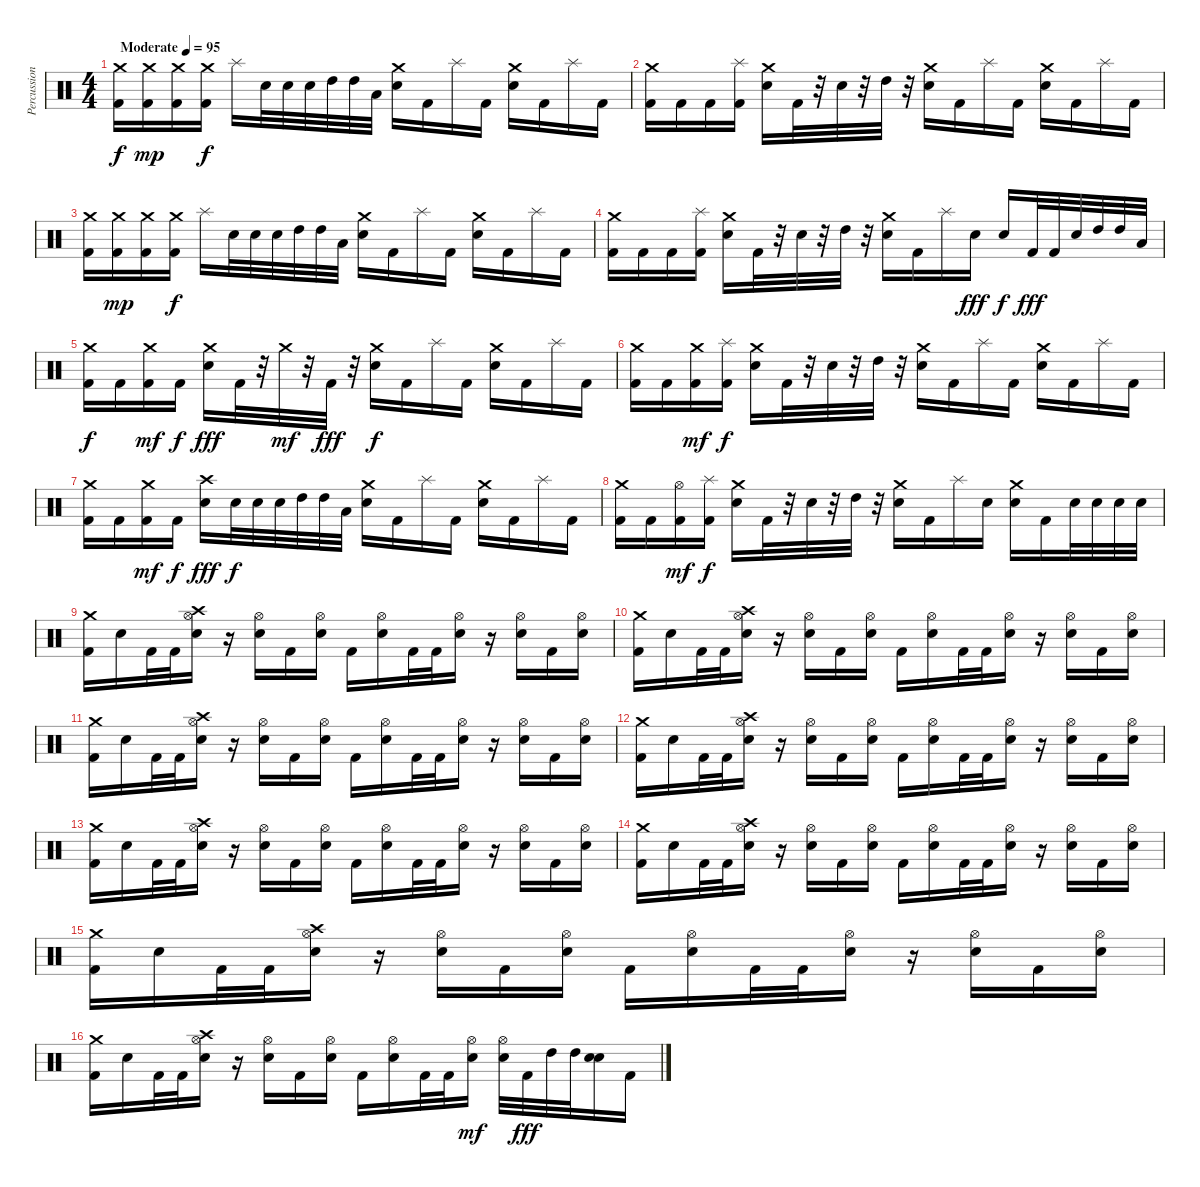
\track ("Percussioni" "Percussion") {instrument percussion}
\staff {score}
\articulation defaults
\ts (4 4)
\tempo (95 "Moderate")
\clef neutral
\ks c
("Crash medium (hit)" "Kick (hit) 2").16{dy f} ("Crash medium (hit)" "Kick (hit) 2").16{dy mp} ("Crash medium (hit)" "Kick (hit) 2").16 ("Crash medium (hit)" "Kick (hit) 2").16{dy f} "Splash (hit)".16 "Electric Snare (hit)".32 "Electric Snare (hit)".32 "Electric Snare (hit)".32 "High Tom (hit)".32 "High Tom (hit)".32 "Low Tom (hit)".32 ("Crash medium (hit)" "Electric Snare (hit)").16 "Kick (hit) 2".16 "Splash (hit)".16 "Kick (hit) 2".16 ("Crash medium (hit)" "Electric Snare (hit)").16 "Kick (hit) 2".16 "Splash (hit)".16 "Kick (hit) 2".16 |
("Crash medium (hit)" "Kick (hit) 2").16 "Kick (hit) 2".16 "Kick (hit) 2".16 ("Splash (hit)" "Kick (hit) 2").16 ("Crash medium (hit)" "Electric Snare (hit)").16 "Kick (hit) 2".32 r.32 "Electric Snare (hit)".32 r.32 "High Tom (hit)".32 r.32 ("Crash medium (hit)" "Electric Snare (hit)").16 "Kick (hit) 2".16 "Splash (hit)".16 "Kick (hit) 2".16 ("Crash medium (hit)" "Electric Snare (hit)").16 "Kick (hit) 2".16 "Splash (hit)".16 "Kick (hit) 2".16 |
("Crash medium (hit)" "Kick (hit) 2").16 ("Crash medium (hit)" "Kick (hit) 2").16{dy mp} ("Crash medium (hit)" "Kick (hit) 2").16 ("Crash medium (hit)" "Kick (hit) 2").16{dy f} "Splash (hit)".16 "Electric Snare (hit)".32 "Electric Snare (hit)".32 "Electric Snare (hit)".32 "High Tom (hit)".32 "High Tom (hit)".32 "Low Tom (hit)".32 ("Crash medium (hit)" "Electric Snare (hit)").16 "Kick (hit) 2".16 "Splash (hit)".16 "Kick (hit) 2".16 ("Crash medium (hit)" "Electric Snare (hit)").16 "Kick (hit) 2".16 "Splash (hit)".16 "Kick (hit) 2".16 |
("Crash medium (hit)" "Kick (hit) 2").16 "Kick (hit) 2".16 "Kick (hit) 2".16 ("Splash (hit)" "Kick (hit) 2").16 ("Crash medium (hit)" "Electric Snare (hit)").16 "Kick (hit) 2".32 r.32 "Electric Snare (hit)".32 r.32 "High Tom (hit)".32 r.32 ("Crash medium (hit)" "Electric Snare (hit)").16 "Kick (hit) 2".16 "Splash (hit)".16 "Electric Snare (hit)".16{dy fff} "Electric Snare (hit)".16{dy f} "Kick (hit) 2".32{dy fff} "Kick (hit) 2".32 "Electric Snare (hit)".32 "High Tom (hit)".32 "High Tom (hit)".32 "Low Tom (hit)".32 |
("Crash medium (hit)" "Kick (hit) 2").16{dy f} "Kick (hit) 2".16 ("Crash medium (hit)" "Kick (hit) 2").16{dy mf} "Kick (hit) 2".16{dy f} ("Crash medium (hit)" "Electric Snare (hit)").16{dy fff} "Kick (hit) 2".32 r.32 "Crash medium (hit)".32{dy mf} r.32 "Kick (hit) 2".32{dy fff} r.32 ("Crash medium (hit)" "Electric Snare (hit)").16{dy f} "Kick (hit) 2".16 "Splash (hit)".16 "Kick (hit) 2".16 ("Crash medium (hit)" "Electric Snare (hit)").16 "Kick (hit) 2".16 "Splash (hit)".16 "Kick (hit) 2".16 |
("Crash medium (hit)" "Kick (hit) 2").16 "Kick (hit) 2".16 ("Crash medium (hit)" "Kick (hit) 2").16{dy mf} ("Splash (hit)" "Kick (hit) 2").16{dy f} ("Crash medium (hit)" "Electric Snare (hit)").16 "Kick (hit) 2".32 r.32 "Electric Snare (hit)".32 r.32 "High Tom (hit)".32 r.32 ("Crash medium (hit)" "Electric Snare (hit)").16 "Kick (hit) 2".16 "Splash (hit)".16 "Kick (hit) 2".16 ("Crash medium (hit)" "Electric Snare (hit)").16 "Kick (hit) 2".16 "Splash (hit)".16 "Kick (hit) 2".16 |
("Crash medium (hit)" "Kick (hit) 2").16 "Kick (hit) 2".16 ("Crash medium (hit)" "Kick (hit) 2").16{dy mf} "Kick (hit) 2".16{dy f} ("Crash high (hit)" "Electric Snare (hit)").16{dy fff} "Electric Snare (hit)".32{dy f} "Electric Snare (hit)".32 "Electric Snare (hit)".32 "High Tom (hit)".32 "High Tom (hit)".32 "Low Tom (hit)".32 ("Crash medium (hit)" "Electric Snare (hit)").16 "Kick (hit) 2".16 "Splash (hit)".16 "Kick (hit) 2".16 ("Crash medium (hit)" "Electric Snare (hit)").16 "Kick (hit) 2".16 "Splash (hit)".16 "Kick (hit) 2".16 |
("Crash medium (hit)" "Kick (hit) 2").16 "Kick (hit) 2".16 ("Hi-Hat (open)" "Kick (hit) 2").16{dy mf} ("Splash (hit)" "Kick (hit) 2").16{dy f} ("Crash medium (hit)" "Electric Snare (hit)").16 "Kick (hit) 2".32 r.32 "Electric Snare (hit)".32 r.32 "High Tom (hit)".32 r.32 ("Crash medium (hit)" "Electric Snare (hit)").16 "Kick (hit) 2".16 "Splash (hit)".16 "Electric Snare (hit)".16 ("Crash medium (hit)" "Electric Snare (hit)").16 "Kick (hit) 2".16 "Electric Snare (hit)".32 "Electric Snare (hit)".32 "Electric Snare (hit)".32 "Electric Snare (hit)".32 |
("Crash medium (hit)" "Kick (hit) 2").16 "Electric Snare (hit)".16 "Kick (hit) 2".32 "Kick (hit) 2".32 ("Crash high (hit)" "Hi-Hat (open)" "Electric Snare (hit)").16 r.16 ("Hi-Hat (open)" "Electric Snare (hit)").16 "Kick (hit) 2".16 ("Hi-Hat (open)" "Electric Snare (hit)").16 "Kick (hit) 2".16 ("Hi-Hat (open)" "Electric Snare (hit)").16 "Kick (hit) 2".32 "Kick (hit) 2".32 ("Hi-Hat (open)" "Electric Snare (hit)").16 r.16 ("Hi-Hat (open)" "Electric Snare (hit)").16 "Kick (hit) 2".16 ("Hi-Hat (open)" "Electric Snare (hit)").16 |
("Crash medium (hit)" "Kick (hit) 2").16 "Electric Snare (hit)".16 "Kick (hit) 2".32 "Kick (hit) 2".32 ("Crash high (hit)" "Hi-Hat (open)" "Electric Snare (hit)").16 r.16 ("Hi-Hat (open)" "Electric Snare (hit)").16 "Kick (hit) 2".16 ("Hi-Hat (open)" "Electric Snare (hit)").16 "Kick (hit) 2".16 ("Hi-Hat (open)" "Electric Snare (hit)").16 "Kick (hit) 2".32 "Kick (hit) 2".32 ("Hi-Hat (open)" "Electric Snare (hit)").16 r.16 ("Hi-Hat (open)" "Electric Snare (hit)").16 "Kick (hit) 2".16 ("Hi-Hat (open)" "Electric Snare (hit)").16 |
("Crash medium (hit)" "Kick (hit) 2").16 "Electric Snare (hit)".16 "Kick (hit) 2".32 "Kick (hit) 2".32 ("Crash high (hit)" "Hi-Hat (open)" "Electric Snare (hit)").16 r.16 ("Hi-Hat (open)" "Electric Snare (hit)").16 "Kick (hit) 2".16 ("Hi-Hat (open)" "Electric Snare (hit)").16 "Kick (hit) 2".16 ("Hi-Hat (open)" "Electric Snare (hit)").16 "Kick (hit) 2".32 "Kick (hit) 2".32 ("Hi-Hat (open)" "Electric Snare (hit)").16 r.16 ("Hi-Hat (open)" "Electric Snare (hit)").16 "Kick (hit) 2".16 ("Hi-Hat (open)" "Electric Snare (hit)").16 |
("Crash medium (hit)" "Kick (hit) 2").16 "Electric Snare (hit)".16 "Kick (hit) 2".32 "Kick (hit) 2".32 ("Crash high (hit)" "Hi-Hat (open)" "Electric Snare (hit)").16 r.16 ("Hi-Hat (open)" "Electric Snare (hit)").16 "Kick (hit) 2".16 ("Hi-Hat (open)" "Electric Snare (hit)").16 "Kick (hit) 2".16 ("Hi-Hat (open)" "Electric Snare (hit)").16 "Kick (hit) 2".32 "Kick (hit) 2".32 ("Hi-Hat (open)" "Electric Snare (hit)").16 r.16 ("Hi-Hat (open)" "Electric Snare (hit)").16 "Kick (hit) 2".16 ("Hi-Hat (open)" "Electric Snare (hit)").16 |
("Crash medium (hit)" "Kick (hit) 2").16 "Electric Snare (hit)".16 "Kick (hit) 2".32 "Kick (hit) 2".32 ("Crash high (hit)" "Hi-Hat (open)" "Electric Snare (hit)").16 r.16 ("Hi-Hat (open)" "Electric Snare (hit)").16 "Kick (hit) 2".16 ("Hi-Hat (open)" "Electric Snare (hit)").16 "Kick (hit) 2".16 ("Hi-Hat (open)" "Electric Snare (hit)").16 "Kick (hit) 2".32 "Kick (hit) 2".32 ("Hi-Hat (open)" "Electric Snare (hit)").16 r.16 ("Hi-Hat (open)" "Electric Snare (hit)").16 "Kick (hit) 2".16 ("Hi-Hat (open)" "Electric Snare (hit)").16 |
("Crash medium (hit)" "Kick (hit) 2").16 "Electric Snare (hit)".16 "Kick (hit) 2".32 "Kick (hit) 2".32 ("Crash high (hit)" "Hi-Hat (open)" "Electric Snare (hit)").16 r.16 ("Hi-Hat (open)" "Electric Snare (hit)").16 "Kick (hit) 2".16 ("Hi-Hat (open)" "Electric Snare (hit)").16 "Kick (hit) 2".16 ("Hi-Hat (open)" "Electric Snare (hit)").16 "Kick (hit) 2".32 "Kick (hit) 2".32 ("Hi-Hat (open)" "Electric Snare (hit)").16 r.16 ("Hi-Hat (open)" "Electric Snare (hit)").16 "Kick (hit) 2".16 ("Hi-Hat (open)" "Electric Snare (hit)").16 |
("Crash medium (hit)" "Kick (hit) 2").16 "Electric Snare (hit)".16 "Kick (hit) 2".32 "Kick (hit) 2".32 ("Crash high (hit)" "Hi-Hat (open)" "Electric Snare (hit)").16 r.16 ("Hi-Hat (open)" "Electric Snare (hit)").16 "Kick (hit) 2".16 ("Hi-Hat (open)" "Electric Snare (hit)").16 "Kick (hit) 2".16 ("Hi-Hat (open)" "Electric Snare (hit)").16 "Kick (hit) 2".32 "Kick (hit) 2".32 ("Hi-Hat (open)" "Electric Snare (hit)").16 r.16 ("Hi-Hat (open)" "Electric Snare (hit)").16 "Kick (hit) 2".16 ("Hi-Hat (open)" "Electric Snare (hit)").16 |
("Crash medium (hit)" "Kick (hit) 2").16 "Electric Snare (hit)".16 "Kick (hit) 2".32 "Kick (hit) 2".32 ("Crash high (hit)" "Hi-Hat (open)" "Electric Snare (hit)").16 r.16 ("Hi-Hat (open)" "Electric Snare (hit)").16 "Kick (hit) 2".16 ("Hi-Hat (open)" "Electric Snare (hit)").16 "Kick (hit) 2".16 ("Hi-Hat (open)" "Electric Snare (hit)").16 "Kick (hit) 2".32 "Kick (hit) 2".32 ("Hi-Hat (open)" "Electric Snare (hit)").16{dy mf} ("Hi-Hat (open)" "Electric Snare (hit)").32 "Kick (hit) 2".32{dy fff} "High Tom (hit)".32 "High Tom (hit)".32 ("Electric Snare (hit)" "Electric Snare (hit)").16{bd 240} "Kick (hit) 2".16
